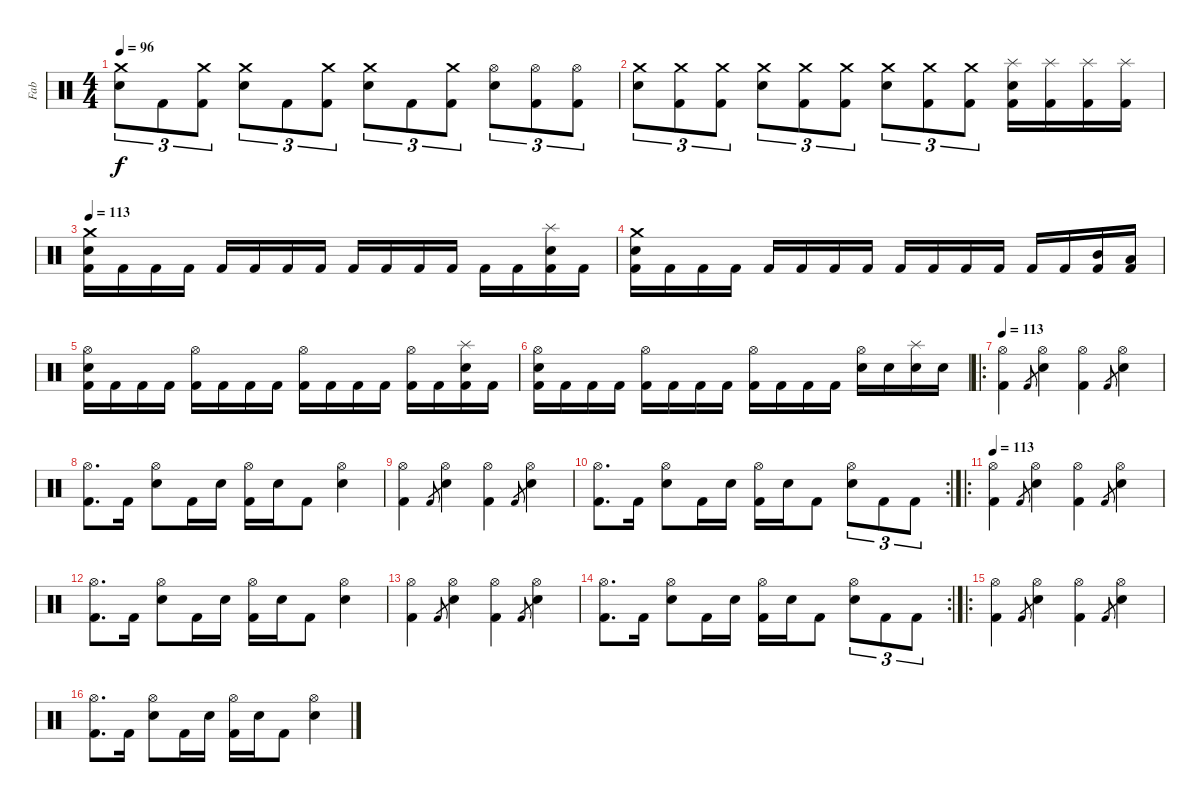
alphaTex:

\track ("Fab" "Fab") {instrument percussion}
\staff {score}
\articulation defaults
\ts (4 4)
\tempo 96
\clef neutral
\ks c
("Crash medium (hit)" "Electric Snare (hit)").8{tu (3 2) dy f} "Kick (hit) 2".8{tu (3 2)} ("Crash medium (hit)" "Kick (hit) 2").8{tu (3 2)} ("Crash medium (hit)" "Electric Snare (hit)").8{tu (3 2)} "Kick (hit) 2".8{tu (3 2)} ("Crash medium (hit)" "Kick (hit) 2").8{tu (3 2)} ("Crash medium (hit)" "Electric Snare (hit)").8{tu (3 2)} "Kick (hit) 2".8{tu (3 2)} ("Crash medium (hit)" "Kick (hit) 2").8{tu (3 2)} ("Hi-Hat (open)" "Electric Snare (hit)").8{tu (3 2)} ("Hi-Hat (open)" "Kick (hit) 2").8{tu (3 2)} ("Hi-Hat (open)" "Kick (hit) 2").8{tu (3 2)} |
("Crash medium (hit)" "Electric Snare (hit)").8{tu (3 2)} ("Crash medium (hit)" "Kick (hit) 2").8{tu (3 2)} ("Crash medium (hit)" "Kick (hit) 2").8{tu (3 2)} ("Crash medium (hit)" "Electric Snare (hit)").8{tu (3 2)} ("Crash medium (hit)" "Kick (hit) 2").8{tu (3 2)} ("Crash medium (hit)" "Kick (hit) 2").8{tu (3 2)} ("Crash medium (hit)" "Electric Snare (hit)").8{tu (3 2)} ("Crash medium (hit)" "Kick (hit) 2").8{tu (3 2)} ("Crash medium (hit)" "Kick (hit) 2").8{tu (3 2)} ("Splash (hit)" "Electric Snare (hit)" "Kick (hit) 2").16 ("Splash (hit)" "Kick (hit) 2").16 ("Splash (hit)" "Kick (hit) 2").16 ("Splash (hit)" "Kick (hit) 2").16 |
\tempo 113
("Crash medium (hit)" "Electric Snare (hit)" "Kick (hit) 2").16 "Kick (hit) 2".16 "Kick (hit) 2".16 "Kick (hit) 2".16 "Kick (hit) 2".16 "Kick (hit) 2".16 "Kick (hit) 2".16 "Kick (hit) 2".16 "Kick (hit) 2".16 "Kick (hit) 2".16 "Kick (hit) 2".16 "Kick (hit) 2".16 "Kick (hit) 2".16 "Kick (hit) 2".16 ("Splash (hit)" "Electric Snare (hit)" "Kick (hit) 2").16 "Kick (hit) 2".16 |
("Crash medium (hit)" "Electric Snare (hit)" "Kick (hit) 2").16 "Kick (hit) 2".16 "Kick (hit) 2".16 "Kick (hit) 2".16 "Kick (hit) 2".16 "Kick (hit) 2".16 "Kick (hit) 2".16 "Kick (hit) 2".16 "Kick (hit) 2".16 "Kick (hit) 2".16 "Kick (hit) 2".16 "Kick (hit) 2".16 "Kick (hit) 2".16 "Kick (hit) 2".16 ("Mid Tom (hit)" "Kick (hit) 2").16 ("Low Tom (hit)" "Kick (hit) 2").16 |
("Hi-Hat (open)" "Electric Snare (hit)" "Kick (hit) 2").16 "Kick (hit) 2".16 "Kick (hit) 2".16 "Kick (hit) 2".16 ("Hi-Hat (open)" "Kick (hit) 2").16 "Kick (hit) 2".16 "Kick (hit) 2".16 "Kick (hit) 2".16 ("Hi-Hat (open)" "Kick (hit) 2").16 "Kick (hit) 2".16 "Kick (hit) 2".16 "Kick (hit) 2".16 ("Hi-Hat (open)" "Kick (hit) 2").16 "Kick (hit) 2".16 ("Splash (hit)" "Electric Snare (hit)" "Kick (hit) 2").16 "Kick (hit) 2".16 |
("Hi-Hat (open)" "Electric Snare (hit)" "Kick (hit) 2").16 "Kick (hit) 2".16 "Kick (hit) 2".16 "Kick (hit) 2".16 ("Hi-Hat (open)" "Kick (hit) 2").16 "Kick (hit) 2".16 "Kick (hit) 2".16 "Kick (hit) 2".16 ("Hi-Hat (open)" "Kick (hit) 2").16 "Kick (hit) 2".16 "Kick (hit) 2".16 "Kick (hit) 2".16 ("Hi-Hat (open)" "Electric Snare (hit)").16 "Electric Snare (hit)".16 ("Splash (hit)" "Electric Snare (hit)").16 "Electric Snare (hit)".16 |
\ro
\tempo 113
("Hi-Hat (open)" "Kick (hit) 2").4 "Kick (hit) 2".8{gr} ("Hi-Hat (open)" "Electric Snare (hit)").4 ("Hi-Hat (open)" "Kick (hit) 2").4 "Kick (hit) 2".8{gr} ("Hi-Hat (open)" "Electric Snare (hit)").4 |
("Hi-Hat (open)" "Kick (hit) 2").8{d} "Kick (hit) 2".16 ("Hi-Hat (open)" "Electric Snare (hit)").8 "Kick (hit) 2".16 "Electric Snare (hit)".16 ("Hi-Hat (open)" "Kick (hit) 2").16 "Electric Snare (hit)".16 "Kick (hit) 2".8 ("Hi-Hat (open)" "Electric Snare (hit)").4 |
("Hi-Hat (open)" "Kick (hit) 2").4 "Kick (hit) 2".8{gr} ("Hi-Hat (open)" "Electric Snare (hit)").4 ("Hi-Hat (open)" "Kick (hit) 2").4 "Kick (hit) 2".8{gr} ("Hi-Hat (open)" "Electric Snare (hit)").4 |
\rc 2
("Hi-Hat (open)" "Kick (hit) 2").8{d} "Kick (hit) 2".16 ("Hi-Hat (open)" "Electric Snare (hit)").8 "Kick (hit) 2".16 "Electric Snare (hit)".16 ("Hi-Hat (open)" "Kick (hit) 2").16 "Electric Snare (hit)".16 "Kick (hit) 2".8 ("Hi-Hat (open)" "Electric Snare (hit)").8{tu (3 2)} "Kick (hit) 2".8{tu (3 2)} "Kick (hit) 2".8{tu (3 2)} |
\ro
\tempo 113
("Hi-Hat (open)" "Kick (hit) 2").4 "Kick (hit) 2".8{gr} ("Hi-Hat (open)" "Electric Snare (hit)").4 ("Hi-Hat (open)" "Kick (hit) 2").4 "Kick (hit) 2".8{gr} ("Hi-Hat (open)" "Electric Snare (hit)").4 |
("Hi-Hat (open)" "Kick (hit) 2").8{d} "Kick (hit) 2".16 ("Hi-Hat (open)" "Electric Snare (hit)").8 "Kick (hit) 2".16 "Electric Snare (hit)".16 ("Hi-Hat (open)" "Kick (hit) 2").16 "Electric Snare (hit)".16 "Kick (hit) 2".8 ("Hi-Hat (open)" "Electric Snare (hit)").4 |
("Hi-Hat (open)" "Kick (hit) 2").4 "Kick (hit) 2".8{gr} ("Hi-Hat (open)" "Electric Snare (hit)").4 ("Hi-Hat (open)" "Kick (hit) 2").4 "Kick (hit) 2".8{gr} ("Hi-Hat (open)" "Electric Snare (hit)").4 |
\rc 2
("Hi-Hat (open)" "Kick (hit) 2").8{d} "Kick (hit) 2".16 ("Hi-Hat (open)" "Electric Snare (hit)").8 "Kick (hit) 2".16 "Electric Snare (hit)".16 ("Hi-Hat (open)" "Kick (hit) 2").16 "Electric Snare (hit)".16 "Kick (hit) 2".8 ("Hi-Hat (open)" "Electric Snare (hit)").8{tu (3 2)} "Kick (hit) 2".8{tu (3 2)} "Kick (hit) 2".8{tu (3 2)} |
\ro
("Hi-Hat (open)" "Kick (hit) 2").4 "Kick (hit) 2".8{gr} ("Hi-Hat (open)" "Electric Snare (hit)").4 ("Hi-Hat (open)" "Kick (hit) 2").4 "Kick (hit) 2".8{gr} ("Hi-Hat (open)" "Electric Snare (hit)").4 |
("Hi-Hat (open)" "Kick (hit) 2").8{d} "Kick (hit) 2".16 ("Hi-Hat (open)" "Electric Snare (hit)").8 "Kick (hit) 2".16 "Electric Snare (hit)".16 ("Hi-Hat (open)" "Kick (hit) 2").16 "Electric Snare (hit)".16 "Kick (hit) 2".8 ("Hi-Hat (open)" "Electric Snare (hit)").4
